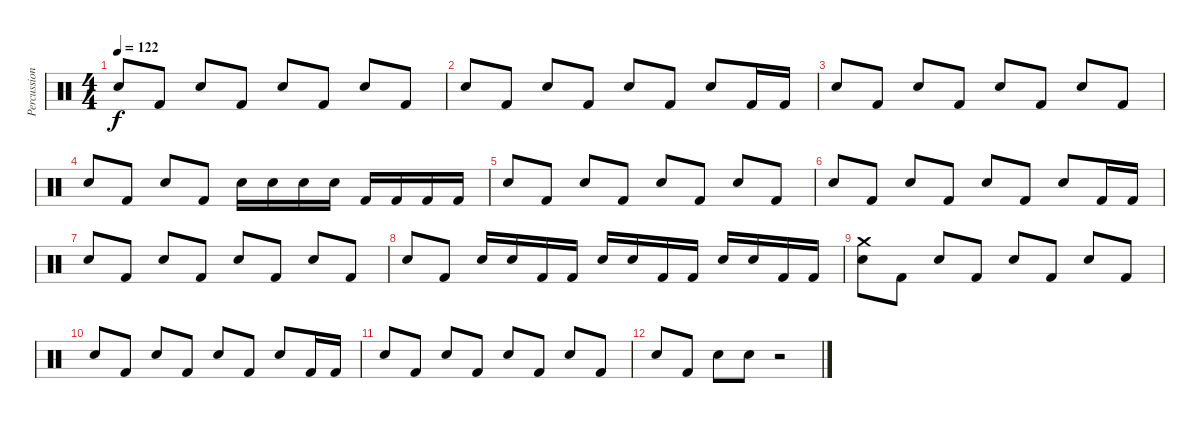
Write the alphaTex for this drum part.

\track ("Percussion" "Percussion") {instrument percussion}
\staff {score}
\articulation defaults
\ts (4 4)
\tempo 122
\clef neutral
\ks c "Electric Snare (hit)".8{dy f} "Kick (hit) 2".8 "Electric Snare (hit)".8 "Kick (hit) 2".8 "Electric Snare (hit)".8 "Kick (hit) 2".8 "Electric Snare (hit)".8 "Kick (hit) 2".8
|
"Electric Snare (hit)".8 "Kick (hit) 2".8 "Electric Snare (hit)".8 "Kick (hit) 2".8 "Electric Snare (hit)".8 "Kick (hit) 2".8 "Electric Snare (hit)".8 "Kick (hit) 2".16 "Kick (hit) 2".16 |
"Electric Snare (hit)".8 "Kick (hit) 2".8 "Electric Snare (hit)".8 "Kick (hit) 2".8 "Electric Snare (hit)".8 "Kick (hit) 2".8 "Electric Snare (hit)".8 "Kick (hit) 2".8 |
"Electric Snare (hit)".8 "Kick (hit) 2".8 "Electric Snare (hit)".8 "Kick (hit) 2".8 "Electric Snare (hit)".16 "Electric Snare (hit)".16 "Electric Snare (hit)".16 "Electric Snare (hit)".16 "Kick (hit) 2".16 "Kick (hit) 2".16 "Kick (hit) 2".16 "Kick (hit) 2".16 |
"Electric Snare (hit)".8 "Kick (hit) 2".8 "Electric Snare (hit)".8 "Kick (hit) 2".8 "Electric Snare (hit)".8 "Kick (hit) 2".8 "Electric Snare (hit)".8 "Kick (hit) 2".8 |
"Electric Snare (hit)".8 "Kick (hit) 2".8 "Electric Snare (hit)".8 "Kick (hit) 2".8 "Electric Snare (hit)".8 "Kick (hit) 2".8 "Electric Snare (hit)".8 "Kick (hit) 2".16 "Kick (hit) 2".16 |
"Electric Snare (hit)".8 "Kick (hit) 2".8 "Electric Snare (hit)".8 "Kick (hit) 2".8 "Electric Snare (hit)".8 "Kick (hit) 2".8 "Electric Snare (hit)".8 "Kick (hit) 2".8 |
"Electric Snare (hit)".8 "Kick (hit) 2".8 "Electric Snare (hit)".16 "Electric Snare (hit)".16 "Kick (hit) 2".16 "Kick (hit) 2".16 "Electric Snare (hit)".16 "Electric Snare (hit)".16 "Kick (hit) 2".16 "Kick (hit) 2".16 "Electric Snare (hit)".16 "Electric Snare (hit)".16 "Kick (hit) 2".16 "Kick (hit) 2".16 |
("Crash medium (hit)" "Electric Snare (hit)").8 "Kick (hit) 2".8 "Electric Snare (hit)".8 "Kick (hit) 2".8 "Electric Snare (hit)".8 "Kick (hit) 2".8 "Electric Snare (hit)".8 "Kick (hit) 2".8 |
"Electric Snare (hit)".8 "Kick (hit) 2".8 "Electric Snare (hit)".8 "Kick (hit) 2".8 "Electric Snare (hit)".8 "Kick (hit) 2".8 "Electric Snare (hit)".8 "Kick (hit) 2".16 "Kick (hit) 2".16 |
"Electric Snare (hit)".8 "Kick (hit) 2".8 "Electric Snare (hit)".8 "Kick (hit) 2".8 "Electric Snare (hit)".8 "Kick (hit) 2".8 "Electric Snare (hit)".8 "Kick (hit) 2".8 |
"Electric Snare (hit)".8 "Kick (hit) 2".8 "Electric Snare (hit)".8 "Electric Snare (hit)".8 r.2
